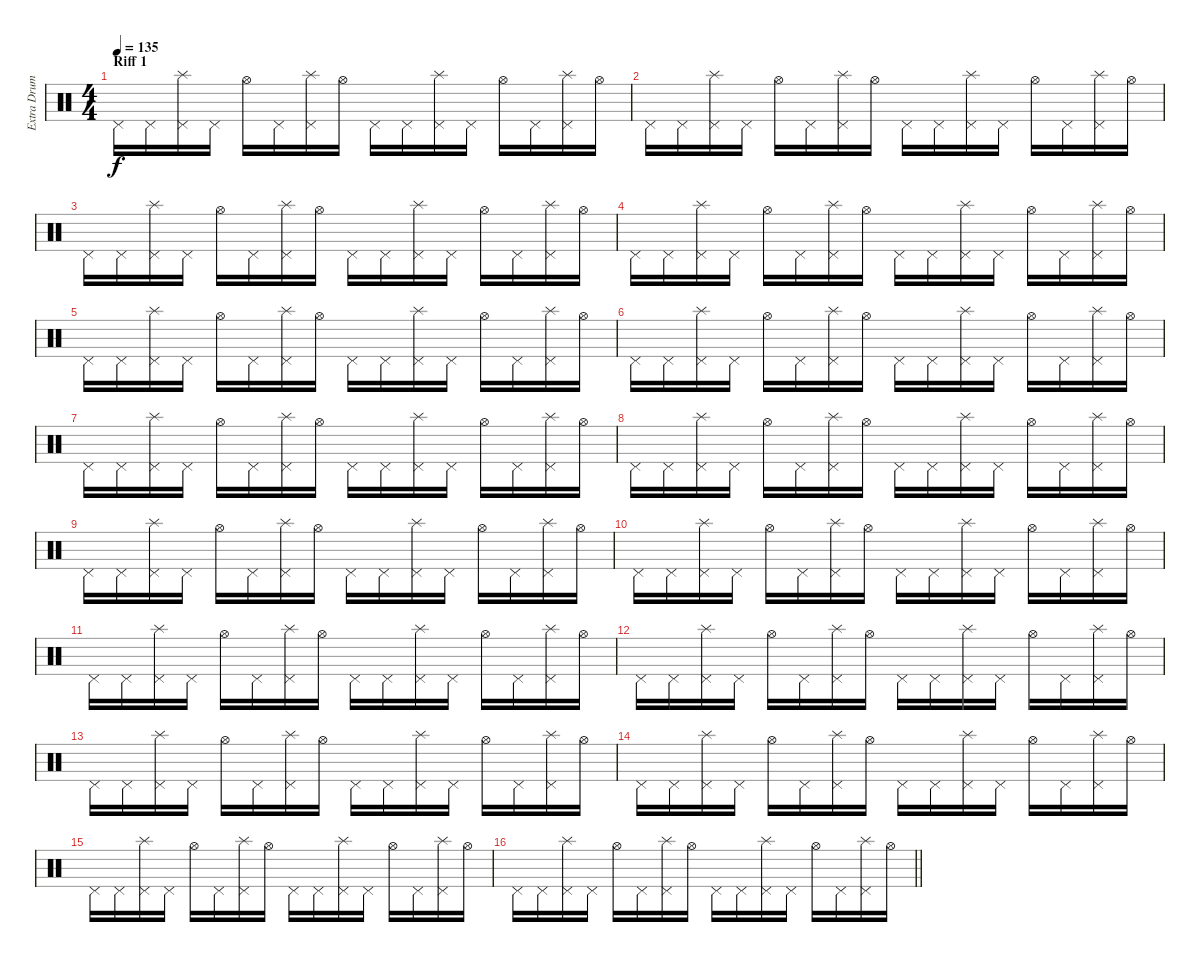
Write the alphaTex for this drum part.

\track ("Extra Drums" "Extra Drum") {instrument percussion}
\staff {score}
\articulation defaults
\ts (4 4)
\section ("" "Riff 1")
\tempo 135
\clef neutral
\ks c "Pedal Hi-Hat (hit)".16{dy f} "Pedal Hi-Hat (hit)".16
("Pedal Hi-Hat (hit)" "Splash (hit)").16 "Pedal Hi-Hat (hit)".16 "Hi-Hat (open)".16 "Pedal Hi-Hat (hit)".16 ("Pedal Hi-Hat (hit)" "Splash (hit)").16 "Hi-Hat (open)".16 "Pedal Hi-Hat (hit)".16 "Pedal Hi-Hat (hit)".16 ("Pedal Hi-Hat (hit)" "Splash (hit)").16 "Pedal Hi-Hat (hit)".16 "Hi-Hat (open)".16 "Pedal Hi-Hat (hit)".16 ("Pedal Hi-Hat (hit)" "Splash (hit)").16 "Hi-Hat (open)".16 |
"Pedal Hi-Hat (hit)".16 "Pedal Hi-Hat (hit)".16 ("Pedal Hi-Hat (hit)" "Splash (hit)").16 "Pedal Hi-Hat (hit)".16 "Hi-Hat (open)".16 "Pedal Hi-Hat (hit)".16 ("Pedal Hi-Hat (hit)" "Splash (hit)").16 "Hi-Hat (open)".16 "Pedal Hi-Hat (hit)".16 "Pedal Hi-Hat (hit)".16 ("Pedal Hi-Hat (hit)" "Splash (hit)").16 "Pedal Hi-Hat (hit)".16 "Hi-Hat (open)".16 "Pedal Hi-Hat (hit)".16 ("Pedal Hi-Hat (hit)" "Splash (hit)").16 "Hi-Hat (open)".16 |
"Pedal Hi-Hat (hit)".16 "Pedal Hi-Hat (hit)".16 ("Pedal Hi-Hat (hit)" "Splash (hit)").16 "Pedal Hi-Hat (hit)".16 "Hi-Hat (open)".16 "Pedal Hi-Hat (hit)".16 ("Pedal Hi-Hat (hit)" "Splash (hit)").16 "Hi-Hat (open)".16 "Pedal Hi-Hat (hit)".16 "Pedal Hi-Hat (hit)".16 ("Pedal Hi-Hat (hit)" "Splash (hit)").16 "Pedal Hi-Hat (hit)".16 "Hi-Hat (open)".16 "Pedal Hi-Hat (hit)".16 ("Pedal Hi-Hat (hit)" "Splash (hit)").16 "Hi-Hat (open)".16 |
"Pedal Hi-Hat (hit)".16 "Pedal Hi-Hat (hit)".16 ("Pedal Hi-Hat (hit)" "Splash (hit)").16 "Pedal Hi-Hat (hit)".16 "Hi-Hat (open)".16 "Pedal Hi-Hat (hit)".16 ("Pedal Hi-Hat (hit)" "Splash (hit)").16 "Hi-Hat (open)".16 "Pedal Hi-Hat (hit)".16 "Pedal Hi-Hat (hit)".16 ("Pedal Hi-Hat (hit)" "Splash (hit)").16 "Pedal Hi-Hat (hit)".16 "Hi-Hat (open)".16 "Pedal Hi-Hat (hit)".16 ("Pedal Hi-Hat (hit)" "Splash (hit)").16 "Hi-Hat (open)".16 |
"Pedal Hi-Hat (hit)".16 "Pedal Hi-Hat (hit)".16 ("Pedal Hi-Hat (hit)" "Splash (hit)").16 "Pedal Hi-Hat (hit)".16 "Hi-Hat (open)".16 "Pedal Hi-Hat (hit)".16 ("Pedal Hi-Hat (hit)" "Splash (hit)").16 "Hi-Hat (open)".16 "Pedal Hi-Hat (hit)".16 "Pedal Hi-Hat (hit)".16 ("Pedal Hi-Hat (hit)" "Splash (hit)").16 "Pedal Hi-Hat (hit)".16 "Hi-Hat (open)".16 "Pedal Hi-Hat (hit)".16 ("Pedal Hi-Hat (hit)" "Splash (hit)").16 "Hi-Hat (open)".16 |
"Pedal Hi-Hat (hit)".16 "Pedal Hi-Hat (hit)".16 ("Pedal Hi-Hat (hit)" "Splash (hit)").16 "Pedal Hi-Hat (hit)".16 "Hi-Hat (open)".16 "Pedal Hi-Hat (hit)".16 ("Pedal Hi-Hat (hit)" "Splash (hit)").16 "Hi-Hat (open)".16 "Pedal Hi-Hat (hit)".16 "Pedal Hi-Hat (hit)".16 ("Pedal Hi-Hat (hit)" "Splash (hit)").16 "Pedal Hi-Hat (hit)".16 "Hi-Hat (open)".16 "Pedal Hi-Hat (hit)".16 ("Pedal Hi-Hat (hit)" "Splash (hit)").16 "Hi-Hat (open)".16 |
"Pedal Hi-Hat (hit)".16 "Pedal Hi-Hat (hit)".16 ("Pedal Hi-Hat (hit)" "Splash (hit)").16 "Pedal Hi-Hat (hit)".16 "Hi-Hat (open)".16 "Pedal Hi-Hat (hit)".16 ("Pedal Hi-Hat (hit)" "Splash (hit)").16 "Hi-Hat (open)".16 "Pedal Hi-Hat (hit)".16 "Pedal Hi-Hat (hit)".16 ("Pedal Hi-Hat (hit)" "Splash (hit)").16 "Pedal Hi-Hat (hit)".16 "Hi-Hat (open)".16 "Pedal Hi-Hat (hit)".16 ("Pedal Hi-Hat (hit)" "Splash (hit)").16 "Hi-Hat (open)".16 |
"Pedal Hi-Hat (hit)".16 "Pedal Hi-Hat (hit)".16 ("Pedal Hi-Hat (hit)" "Splash (hit)").16 "Pedal Hi-Hat (hit)".16 "Hi-Hat (open)".16 "Pedal Hi-Hat (hit)".16 ("Pedal Hi-Hat (hit)" "Splash (hit)").16 "Hi-Hat (open)".16 "Pedal Hi-Hat (hit)".16 "Pedal Hi-Hat (hit)".16 ("Pedal Hi-Hat (hit)" "Splash (hit)").16 "Pedal Hi-Hat (hit)".16 "Hi-Hat (open)".16 "Pedal Hi-Hat (hit)".16 ("Pedal Hi-Hat (hit)" "Splash (hit)").16 "Hi-Hat (open)".16 |
"Pedal Hi-Hat (hit)".16 "Pedal Hi-Hat (hit)".16 ("Pedal Hi-Hat (hit)" "Splash (hit)").16 "Pedal Hi-Hat (hit)".16 "Hi-Hat (open)".16 "Pedal Hi-Hat (hit)".16 ("Pedal Hi-Hat (hit)" "Splash (hit)").16 "Hi-Hat (open)".16 "Pedal Hi-Hat (hit)".16 "Pedal Hi-Hat (hit)".16 ("Pedal Hi-Hat (hit)" "Splash (hit)").16 "Pedal Hi-Hat (hit)".16 "Hi-Hat (open)".16 "Pedal Hi-Hat (hit)".16 ("Pedal Hi-Hat (hit)" "Splash (hit)").16 "Hi-Hat (open)".16 |
"Pedal Hi-Hat (hit)".16 "Pedal Hi-Hat (hit)".16 ("Pedal Hi-Hat (hit)" "Splash (hit)").16 "Pedal Hi-Hat (hit)".16 "Hi-Hat (open)".16 "Pedal Hi-Hat (hit)".16 ("Pedal Hi-Hat (hit)" "Splash (hit)").16 "Hi-Hat (open)".16 "Pedal Hi-Hat (hit)".16 "Pedal Hi-Hat (hit)".16 ("Pedal Hi-Hat (hit)" "Splash (hit)").16 "Pedal Hi-Hat (hit)".16 "Hi-Hat (open)".16 "Pedal Hi-Hat (hit)".16 ("Pedal Hi-Hat (hit)" "Splash (hit)").16 "Hi-Hat (open)".16 |
"Pedal Hi-Hat (hit)".16 "Pedal Hi-Hat (hit)".16 ("Pedal Hi-Hat (hit)" "Splash (hit)").16 "Pedal Hi-Hat (hit)".16 "Hi-Hat (open)".16 "Pedal Hi-Hat (hit)".16 ("Pedal Hi-Hat (hit)" "Splash (hit)").16 "Hi-Hat (open)".16 "Pedal Hi-Hat (hit)".16 "Pedal Hi-Hat (hit)".16 ("Pedal Hi-Hat (hit)" "Splash (hit)").16 "Pedal Hi-Hat (hit)".16 "Hi-Hat (open)".16 "Pedal Hi-Hat (hit)".16 ("Pedal Hi-Hat (hit)" "Splash (hit)").16 "Hi-Hat (open)".16 |
"Pedal Hi-Hat (hit)".16 "Pedal Hi-Hat (hit)".16 ("Pedal Hi-Hat (hit)" "Splash (hit)").16 "Pedal Hi-Hat (hit)".16 "Hi-Hat (open)".16 "Pedal Hi-Hat (hit)".16 ("Pedal Hi-Hat (hit)" "Splash (hit)").16 "Hi-Hat (open)".16 "Pedal Hi-Hat (hit)".16 "Pedal Hi-Hat (hit)".16 ("Pedal Hi-Hat (hit)" "Splash (hit)").16 "Pedal Hi-Hat (hit)".16 "Hi-Hat (open)".16 "Pedal Hi-Hat (hit)".16 ("Pedal Hi-Hat (hit)" "Splash (hit)").16 "Hi-Hat (open)".16 |
"Pedal Hi-Hat (hit)".16 "Pedal Hi-Hat (hit)".16 ("Pedal Hi-Hat (hit)" "Splash (hit)").16 "Pedal Hi-Hat (hit)".16 "Hi-Hat (open)".16 "Pedal Hi-Hat (hit)".16 ("Pedal Hi-Hat (hit)" "Splash (hit)").16 "Hi-Hat (open)".16 "Pedal Hi-Hat (hit)".16 "Pedal Hi-Hat (hit)".16 ("Pedal Hi-Hat (hit)" "Splash (hit)").16 "Pedal Hi-Hat (hit)".16 "Hi-Hat (open)".16 "Pedal Hi-Hat (hit)".16 ("Pedal Hi-Hat (hit)" "Splash (hit)").16 "Hi-Hat (open)".16 |
"Pedal Hi-Hat (hit)".16 "Pedal Hi-Hat (hit)".16 ("Pedal Hi-Hat (hit)" "Splash (hit)").16 "Pedal Hi-Hat (hit)".16 "Hi-Hat (open)".16 "Pedal Hi-Hat (hit)".16 ("Pedal Hi-Hat (hit)" "Splash (hit)").16 "Hi-Hat (open)".16 "Pedal Hi-Hat (hit)".16 "Pedal Hi-Hat (hit)".16 ("Pedal Hi-Hat (hit)" "Splash (hit)").16 "Pedal Hi-Hat (hit)".16 "Hi-Hat (open)".16 "Pedal Hi-Hat (hit)".16 ("Pedal Hi-Hat (hit)" "Splash (hit)").16 "Hi-Hat (open)".16 |
"Pedal Hi-Hat (hit)".16 "Pedal Hi-Hat (hit)".16 ("Pedal Hi-Hat (hit)" "Splash (hit)").16 "Pedal Hi-Hat (hit)".16 "Hi-Hat (open)".16 "Pedal Hi-Hat (hit)".16 ("Pedal Hi-Hat (hit)" "Splash (hit)").16 "Hi-Hat (open)".16 "Pedal Hi-Hat (hit)".16 "Pedal Hi-Hat (hit)".16 ("Pedal Hi-Hat (hit)" "Splash (hit)").16 "Pedal Hi-Hat (hit)".16 "Hi-Hat (open)".16 "Pedal Hi-Hat (hit)".16 ("Pedal Hi-Hat (hit)" "Splash (hit)").16 "Hi-Hat (open)".16 |
\barLineRight lightlight "Pedal Hi-Hat (hit)".16 "Pedal Hi-Hat (hit)".16
("Pedal Hi-Hat (hit)" "Splash (hit)").16 "Pedal Hi-Hat (hit)".16 "Hi-Hat (open)".16 "Pedal Hi-Hat (hit)".16 ("Pedal Hi-Hat (hit)" "Splash (hit)").16 "Hi-Hat (open)".16 "Pedal Hi-Hat (hit)".16 "Pedal Hi-Hat (hit)".16 ("Pedal Hi-Hat (hit)" "Splash (hit)").16 "Pedal Hi-Hat (hit)".16 "Hi-Hat (open)".16 "Pedal Hi-Hat (hit)".16 ("Pedal Hi-Hat (hit)" "Splash (hit)").16 "Hi-Hat (open)".16
